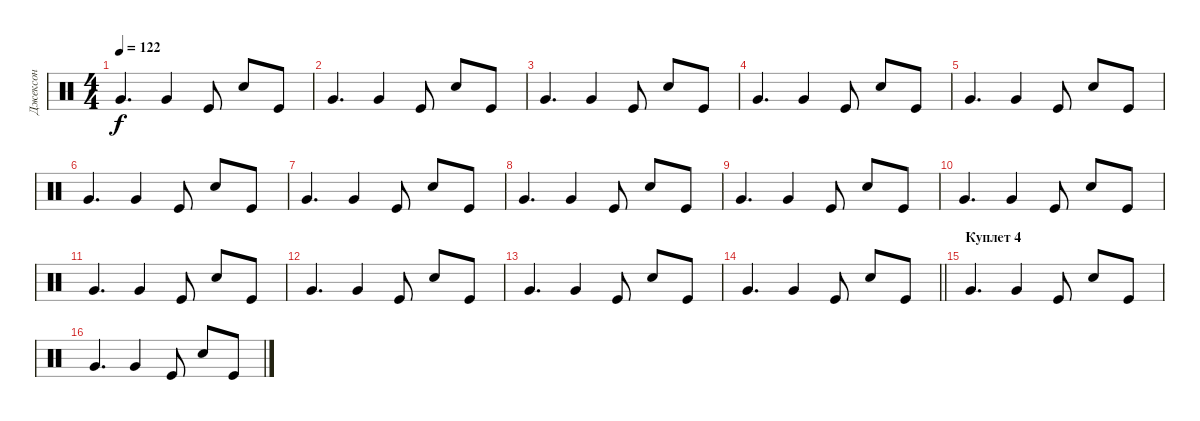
\track ("Джексон" "Джексон") {instrument percussion}
\staff {score}
\articulation defaults
\ts (4 4)
\tempo 122
\clef neutral
\ks c "Very Low Tom (hit)".4{d dy f} "Very Low Tom (hit)".4 "Kick (hit)".8 "Snare (hit) 2".8 "Kick (hit)".8
|
"Very Low Tom (hit)".4{d} "Very Low Tom (hit)".4 "Kick (hit)".8 "Snare (hit) 2".8 "Kick (hit)".8 |
"Very Low Tom (hit)".4{d} "Very Low Tom (hit)".4 "Kick (hit)".8 "Snare (hit) 2".8 "Kick (hit)".8 |
"Very Low Tom (hit)".4{d} "Very Low Tom (hit)".4 "Kick (hit)".8 "Snare (hit) 2".8 "Kick (hit)".8 |
"Very Low Tom (hit)".4{d} "Very Low Tom (hit)".4 "Kick (hit)".8 "Snare (hit) 2".8 "Kick (hit)".8 |
"Very Low Tom (hit)".4{d} "Very Low Tom (hit)".4 "Kick (hit)".8 "Snare (hit) 2".8 "Kick (hit)".8 |
"Very Low Tom (hit)".4{d} "Very Low Tom (hit)".4 "Kick (hit)".8 "Snare (hit) 2".8 "Kick (hit)".8 |
"Very Low Tom (hit)".4{d} "Very Low Tom (hit)".4 "Kick (hit)".8 "Snare (hit) 2".8 "Kick (hit)".8 |
"Very Low Tom (hit)".4{d} "Very Low Tom (hit)".4 "Kick (hit)".8 "Snare (hit) 2".8 "Kick (hit)".8 |
"Very Low Tom (hit)".4{d} "Very Low Tom (hit)".4 "Kick (hit)".8 "Snare (hit) 2".8 "Kick (hit)".8 |
"Very Low Tom (hit)".4{d} "Very Low Tom (hit)".4 "Kick (hit)".8 "Snare (hit) 2".8 "Kick (hit)".8 |
"Very Low Tom (hit)".4{d} "Very Low Tom (hit)".4 "Kick (hit)".8 "Snare (hit) 2".8 "Kick (hit)".8 |
"Very Low Tom (hit)".4{d} "Very Low Tom (hit)".4 "Kick (hit)".8 "Snare (hit) 2".8 "Kick (hit)".8 |
\barLineRight lightlight "Very Low Tom (hit)".4{d} "Very Low Tom (hit)".4 "Kick (hit)".8 "Snare (hit) 2".8 "Kick (hit)".8
|
\section ("" "Куплет 4")
"Very Low Tom (hit)".4{d} "Very Low Tom (hit)".4 "Kick (hit)".8 "Snare (hit) 2".8 "Kick (hit)".8 |
"Very Low Tom (hit)".4{d} "Very Low Tom (hit)".4 "Kick (hit)".8 "Snare (hit) 2".8 "Kick (hit)".8
